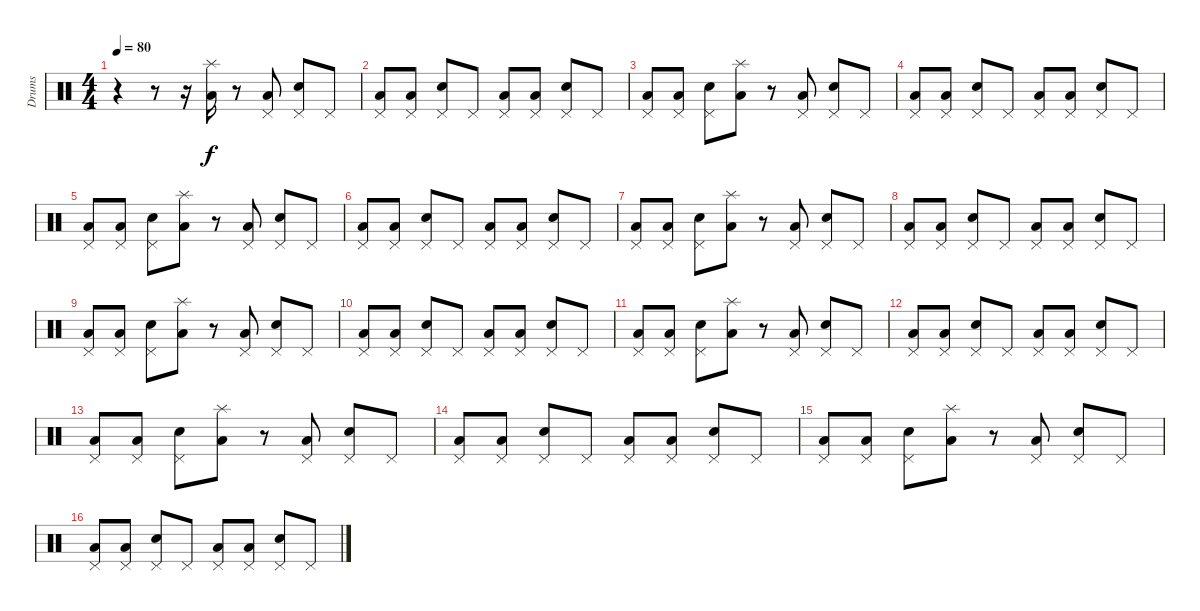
\track ("Drums" "Drums") {instrument percussion}
\staff {score}
\articulation defaults
\ts (4 4)
\tempo 80
\clef neutral
\ks c
r.4{dy f} r.8 r.16 ("Low Floor Tom (hit)" "Splash (hit)").16 r.8 ("Low Floor Tom (hit)" "Pedal Hi-Hat (hit)").8 ("Electric Snare (hit)" "Pedal Hi-Hat (hit)").8 "Pedal Hi-Hat (hit)".8 |
("Low Floor Tom (hit)" "Pedal Hi-Hat (hit)").8 ("Low Floor Tom (hit)" "Pedal Hi-Hat (hit)").8 ("Electric Snare (hit)" "Pedal Hi-Hat (hit)").8 "Pedal Hi-Hat (hit)".8 ("Low Floor Tom (hit)" "Pedal Hi-Hat (hit)").8 ("Low Floor Tom (hit)" "Pedal Hi-Hat (hit)").8 ("Electric Snare (hit)" "Pedal Hi-Hat (hit)").8 "Pedal Hi-Hat (hit)".8 |
("Low Floor Tom (hit)" "Pedal Hi-Hat (hit)").8 ("Low Floor Tom (hit)" "Pedal Hi-Hat (hit)").8 ("Electric Snare (hit)" "Pedal Hi-Hat (hit)").8 ("Low Floor Tom (hit)" "Splash (hit)").8 r.8 ("Low Floor Tom (hit)" "Pedal Hi-Hat (hit)").8 ("Electric Snare (hit)" "Pedal Hi-Hat (hit)").8 "Pedal Hi-Hat (hit)".8 |
("Low Floor Tom (hit)" "Pedal Hi-Hat (hit)").8 ("Low Floor Tom (hit)" "Pedal Hi-Hat (hit)").8 ("Electric Snare (hit)" "Pedal Hi-Hat (hit)").8 "Pedal Hi-Hat (hit)".8 ("Low Floor Tom (hit)" "Pedal Hi-Hat (hit)").8 ("Low Floor Tom (hit)" "Pedal Hi-Hat (hit)").8 ("Electric Snare (hit)" "Pedal Hi-Hat (hit)").8 "Pedal Hi-Hat (hit)".8 |
("Low Floor Tom (hit)" "Pedal Hi-Hat (hit)").8 ("Low Floor Tom (hit)" "Pedal Hi-Hat (hit)").8 ("Electric Snare (hit)" "Pedal Hi-Hat (hit)").8 ("Low Floor Tom (hit)" "Splash (hit)").8 r.8 ("Low Floor Tom (hit)" "Pedal Hi-Hat (hit)").8 ("Electric Snare (hit)" "Pedal Hi-Hat (hit)").8 "Pedal Hi-Hat (hit)".8 |
("Low Floor Tom (hit)" "Pedal Hi-Hat (hit)").8 ("Low Floor Tom (hit)" "Pedal Hi-Hat (hit)").8 ("Electric Snare (hit)" "Pedal Hi-Hat (hit)").8 "Pedal Hi-Hat (hit)".8 ("Low Floor Tom (hit)" "Pedal Hi-Hat (hit)").8 ("Low Floor Tom (hit)" "Pedal Hi-Hat (hit)").8 ("Electric Snare (hit)" "Pedal Hi-Hat (hit)").8 "Pedal Hi-Hat (hit)".8 |
("Low Floor Tom (hit)" "Pedal Hi-Hat (hit)").8 ("Low Floor Tom (hit)" "Pedal Hi-Hat (hit)").8 ("Electric Snare (hit)" "Pedal Hi-Hat (hit)").8 ("Low Floor Tom (hit)" "Splash (hit)").8 r.8 ("Low Floor Tom (hit)" "Pedal Hi-Hat (hit)").8 ("Electric Snare (hit)" "Pedal Hi-Hat (hit)").8 "Pedal Hi-Hat (hit)".8 |
("Low Floor Tom (hit)" "Pedal Hi-Hat (hit)").8 ("Low Floor Tom (hit)" "Pedal Hi-Hat (hit)").8 ("Electric Snare (hit)" "Pedal Hi-Hat (hit)").8 "Pedal Hi-Hat (hit)".8 ("Low Floor Tom (hit)" "Pedal Hi-Hat (hit)").8 ("Low Floor Tom (hit)" "Pedal Hi-Hat (hit)").8 ("Electric Snare (hit)" "Pedal Hi-Hat (hit)").8 "Pedal Hi-Hat (hit)".8 |
("Low Floor Tom (hit)" "Pedal Hi-Hat (hit)").8 ("Low Floor Tom (hit)" "Pedal Hi-Hat (hit)").8 ("Electric Snare (hit)" "Pedal Hi-Hat (hit)").8 ("Low Floor Tom (hit)" "Splash (hit)").8 r.8 ("Low Floor Tom (hit)" "Pedal Hi-Hat (hit)").8 ("Electric Snare (hit)" "Pedal Hi-Hat (hit)").8 "Pedal Hi-Hat (hit)".8 |
("Low Floor Tom (hit)" "Pedal Hi-Hat (hit)").8 ("Low Floor Tom (hit)" "Pedal Hi-Hat (hit)").8 ("Electric Snare (hit)" "Pedal Hi-Hat (hit)").8 "Pedal Hi-Hat (hit)".8 ("Low Floor Tom (hit)" "Pedal Hi-Hat (hit)").8 ("Low Floor Tom (hit)" "Pedal Hi-Hat (hit)").8 ("Electric Snare (hit)" "Pedal Hi-Hat (hit)").8 "Pedal Hi-Hat (hit)".8 |
("Low Floor Tom (hit)" "Pedal Hi-Hat (hit)").8 ("Low Floor Tom (hit)" "Pedal Hi-Hat (hit)").8 ("Electric Snare (hit)" "Pedal Hi-Hat (hit)").8 ("Low Floor Tom (hit)" "Splash (hit)").8 r.8 ("Low Floor Tom (hit)" "Pedal Hi-Hat (hit)").8 ("Electric Snare (hit)" "Pedal Hi-Hat (hit)").8 "Pedal Hi-Hat (hit)".8 |
("Low Floor Tom (hit)" "Pedal Hi-Hat (hit)").8 ("Low Floor Tom (hit)" "Pedal Hi-Hat (hit)").8 ("Electric Snare (hit)" "Pedal Hi-Hat (hit)").8 "Pedal Hi-Hat (hit)".8 ("Low Floor Tom (hit)" "Pedal Hi-Hat (hit)").8 ("Low Floor Tom (hit)" "Pedal Hi-Hat (hit)").8 ("Electric Snare (hit)" "Pedal Hi-Hat (hit)").8 "Pedal Hi-Hat (hit)".8 |
("Low Floor Tom (hit)" "Pedal Hi-Hat (hit)").8 ("Low Floor Tom (hit)" "Pedal Hi-Hat (hit)").8 ("Electric Snare (hit)" "Pedal Hi-Hat (hit)").8 ("Low Floor Tom (hit)" "Splash (hit)").8 r.8 ("Low Floor Tom (hit)" "Pedal Hi-Hat (hit)").8 ("Electric Snare (hit)" "Pedal Hi-Hat (hit)").8 "Pedal Hi-Hat (hit)".8 |
("Low Floor Tom (hit)" "Pedal Hi-Hat (hit)").8 ("Low Floor Tom (hit)" "Pedal Hi-Hat (hit)").8 ("Electric Snare (hit)" "Pedal Hi-Hat (hit)").8 "Pedal Hi-Hat (hit)".8 ("Low Floor Tom (hit)" "Pedal Hi-Hat (hit)").8 ("Low Floor Tom (hit)" "Pedal Hi-Hat (hit)").8 ("Electric Snare (hit)" "Pedal Hi-Hat (hit)").8 "Pedal Hi-Hat (hit)".8 |
("Low Floor Tom (hit)" "Pedal Hi-Hat (hit)").8 ("Low Floor Tom (hit)" "Pedal Hi-Hat (hit)").8 ("Electric Snare (hit)" "Pedal Hi-Hat (hit)").8 ("Low Floor Tom (hit)" "Splash (hit)").8 r.8 ("Low Floor Tom (hit)" "Pedal Hi-Hat (hit)").8 ("Electric Snare (hit)" "Pedal Hi-Hat (hit)").8 "Pedal Hi-Hat (hit)".8 |
("Low Floor Tom (hit)" "Pedal Hi-Hat (hit)").8 ("Low Floor Tom (hit)" "Pedal Hi-Hat (hit)").8 ("Electric Snare (hit)" "Pedal Hi-Hat (hit)").8 "Pedal Hi-Hat (hit)".8 ("Low Floor Tom (hit)" "Pedal Hi-Hat (hit)").8 ("Low Floor Tom (hit)" "Pedal Hi-Hat (hit)").8 ("Electric Snare (hit)" "Pedal Hi-Hat (hit)").8 "Pedal Hi-Hat (hit)".8
